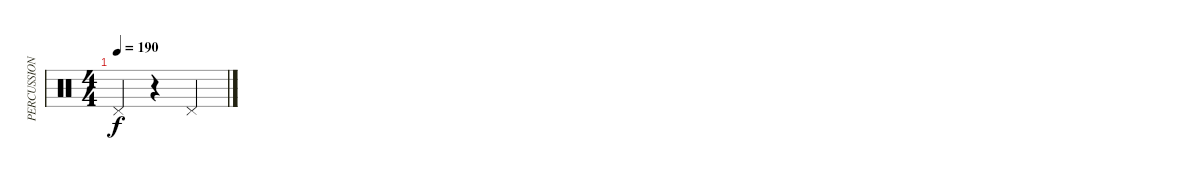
\track ("PERCUSSION" "PERCUSSION") {instrument percussion}
\staff {score}
\articulation defaults
\ts (4 4)
\tempo 190
\clef neutral
\ks c "Pedal Hi-Hat (hit)".4{dy f}
r.4 "Pedal Hi-Hat (hit)".4
